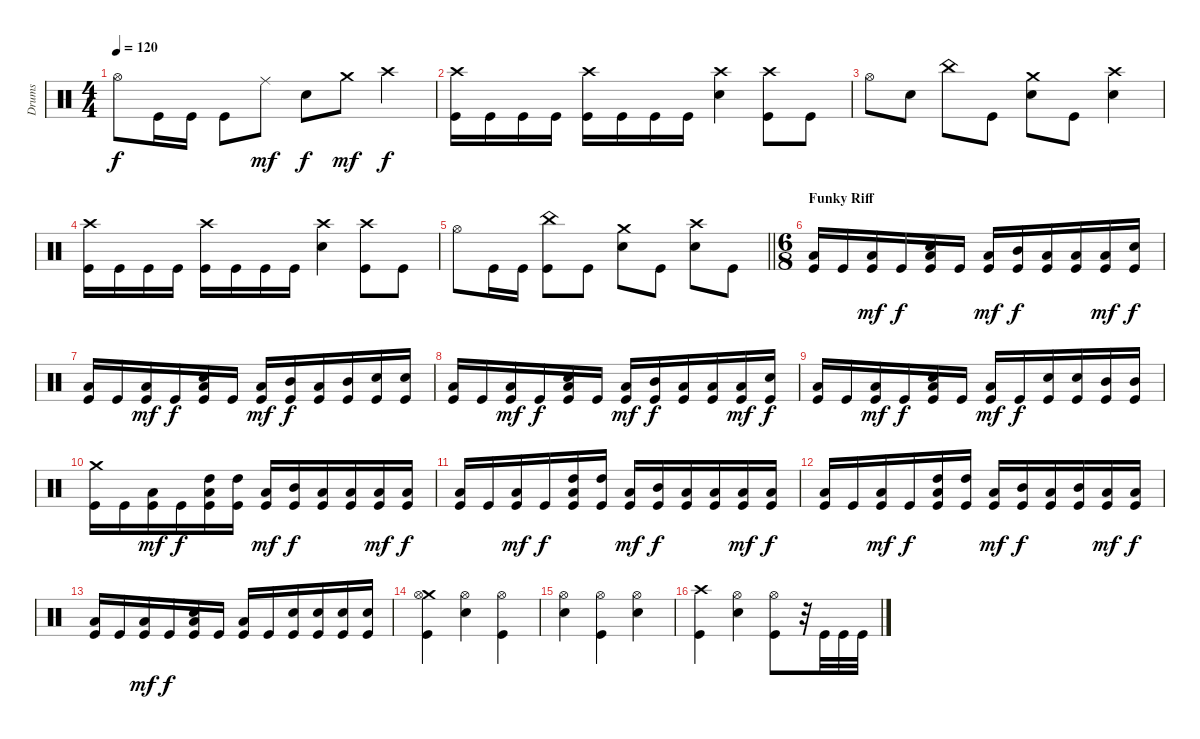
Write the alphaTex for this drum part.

\track ("Drums" "Drums") {instrument percussion}
\staff {score}
\articulation defaults
\ts (4 4)
\tempo 120
\clef neutral
\ks c "Hi-Hat (open)".8{dy f} "Kick (hit)".16 "Kick (hit)".16 "Kick (hit)".8 "Ride (middle)".8{dy mf} "Electric Snare (hit)".8{dy f} "Crash medium (hit)".8{dy mf} "Crash high (hit)".4{dy f}
|
("Crash high (hit)" "Kick (hit)").16 "Kick (hit)".16 "Kick (hit)".16 "Kick (hit)".16 ("Crash high (hit)" "Kick (hit)").16 "Kick (hit)".16 "Kick (hit)".16 "Kick (hit)".16 ("Crash high (hit)" "Electric Snare (hit)").4 ("Crash high (hit)" "Kick (hit)").8 "Kick (hit)".8 |
"Hi-Hat (open)".8 "Electric Snare (hit)".8 "China (hit)".8 "Kick (hit)".8 ("Crash medium (hit)" "Electric Snare (hit)").8 "Kick (hit)".8 ("Crash high (hit)" "Electric Snare (hit)").4 |
("Crash high (hit)" "Kick (hit)").16 "Kick (hit)".16 "Kick (hit)".16 "Kick (hit)".16 ("Crash high (hit)" "Kick (hit)").16 "Kick (hit)".16 "Kick (hit)".16 "Kick (hit)".16 ("Crash high (hit)" "Electric Snare (hit)").4 ("Crash high (hit)" "Kick (hit)").8 "Kick (hit)".8 |
\barLineRight lightlight "Hi-Hat (open)".8 "Kick (hit)".16 "Kick (hit)".16
("China (hit)" "Kick (hit)").8 "Kick (hit)".8 ("Crash medium (hit)" "Electric Snare (hit)").8 "Kick (hit)".8 ("Crash high (hit)" "Electric Snare (hit)").8 "Kick (hit)".8 |
\ts (6 8)
\section ("" "Funky Riff")
("Low Floor Tom (hit)" "Kick (hit)").16 "Kick (hit)".16 ("Low Floor Tom (hit)" "Kick (hit)").16{dy mf} "Kick (hit)".16{dy f} ("Low Floor Tom (hit)" "Electric Snare (hit)" "Kick (hit)").16 "Kick (hit)".16 ("Low Floor Tom (hit)" "Kick (hit)").16{dy mf} ("Mid Tom (hit)" "Kick (hit)").16{dy f} ("Low Floor Tom (hit)" "Kick (hit)").16 ("Low Tom (hit)" "Kick (hit)").16 ("Low Floor Tom (hit)" "Kick (hit)").16{dy mf} ("Electric Snare (hit)" "Kick (hit)").16{dy f} |
("Low Floor Tom (hit)" "Kick (hit)").16 "Kick (hit)".16 ("Low Floor Tom (hit)" "Kick (hit)").16{dy mf} "Kick (hit)".16{dy f} ("Low Floor Tom (hit)" "Electric Snare (hit)" "Kick (hit)").16 "Kick (hit)".16 ("Low Floor Tom (hit)" "Kick (hit)").16{dy mf} ("Mid Tom (hit)" "Kick (hit)").16{dy f} ("Low Floor Tom (hit)" "Kick (hit)").16 ("Mid Tom (hit)" "Kick (hit)").16 ("Electric Snare (hit)" "Kick (hit)").16 ("Electric Snare (hit)" "Kick (hit)").16 |
("Low Floor Tom (hit)" "Kick (hit)").16 "Kick (hit)".16 ("Low Floor Tom (hit)" "Kick (hit)").16{dy mf} "Kick (hit)".16{dy f} ("Low Floor Tom (hit)" "Electric Snare (hit)" "Kick (hit)").16 "Kick (hit)".16 ("Low Floor Tom (hit)" "Kick (hit)").16{dy mf} ("Mid Tom (hit)" "Kick (hit)").16{dy f} ("Low Floor Tom (hit)" "Kick (hit)").16 ("Low Tom (hit)" "Kick (hit)").16 ("Low Floor Tom (hit)" "Kick (hit)").16{dy mf} ("Electric Snare (hit)" "Kick (hit)").16{dy f} |
("Low Tom (hit)" "Kick (hit)").16 "Kick (hit)".16 ("Low Tom (hit)" "Kick (hit)").16{dy mf} "Kick (hit)".16{dy f} ("Low Tom (hit)" "Electric Snare (hit)" "Kick (hit)").16 "Kick (hit)".16 ("Low Tom (hit)" "Kick (hit)").16{dy mf} "Kick (hit)".16{dy f} ("Electric Snare (hit)" "Kick (hit)").16 ("Electric Snare (hit)" "Kick (hit)").16 ("Mid Tom (hit)" "Kick (hit)").16 ("Mid Tom (hit)" "Kick (hit)").16 |
("Crash medium (hit)" "Kick (hit)").16 "Kick (hit)".16 ("Low Floor Tom (hit)" "Kick (hit)").16{dy mf} "Kick (hit)".16{dy f} ("High Tom (hit)" "Low Floor Tom (hit)" "Kick (hit)").16 ("High Tom (hit)" "Kick (hit)").16 ("Low Floor Tom (hit)" "Kick (hit)").16{dy mf} ("Mid Tom (hit)" "Kick (hit)").16{dy f} ("Low Floor Tom (hit)" "Kick (hit)").16 ("Low Tom (hit)" "Kick (hit)").16 ("Low Floor Tom (hit)" "Kick (hit)").16{dy mf} ("Low Tom (hit)" "Kick (hit)").16{dy f} |
("Low Floor Tom (hit)" "Kick (hit)").16 "Kick (hit)".16 ("Low Floor Tom (hit)" "Kick (hit)").16{dy mf} "Kick (hit)".16{dy f} ("High Tom (hit)" "Low Floor Tom (hit)" "Kick (hit)").16 ("High Tom (hit)" "Kick (hit)").16 ("Low Floor Tom (hit)" "Kick (hit)").16{dy mf} ("Mid Tom (hit)" "Kick (hit)").16{dy f} ("Low Floor Tom (hit)" "Kick (hit)").16 ("Low Tom (hit)" "Kick (hit)").16 ("Low Floor Tom (hit)" "Kick (hit)").16{dy mf} ("Low Tom (hit)" "Kick (hit)").16{dy f} |
("Low Floor Tom (hit)" "Kick (hit)").16 "Kick (hit)".16 ("Low Floor Tom (hit)" "Kick (hit)").16{dy mf} "Kick (hit)".16{dy f} ("High Tom (hit)" "Low Floor Tom (hit)" "Kick (hit)").16 ("High Tom (hit)" "Kick (hit)").16 ("Low Floor Tom (hit)" "Kick (hit)").16{dy mf} ("Mid Tom (hit)" "Kick (hit)").16{dy f} ("Low Floor Tom (hit)" "Kick (hit)").16 ("Mid Tom (hit)" "Kick (hit)").16 ("Low Floor Tom (hit)" "Kick (hit)").16{dy mf} ("Low Tom (hit)" "Kick (hit)").16{dy f} |
("Low Floor Tom (hit)" "Kick (hit)").16 "Kick (hit)".16 ("Low Floor Tom (hit)" "Kick (hit)").16{dy mf} "Kick (hit)".16{dy f} ("Low Floor Tom (hit)" "Electric Snare (hit)" "Kick (hit)").16 "Kick (hit)".16 ("Low Floor Tom (hit)" "Kick (hit)").16 "Kick (hit)".16 ("Electric Snare (hit)" "Kick (hit)").16 ("Electric Snare (hit)" "Kick (hit)").16 ("Electric Snare (hit)" "Kick (hit)").16 ("Electric Snare (hit)" "Kick (hit)").16 |
("Crash medium (hit)" "Hi-Hat (open)" "Kick (hit)").4 ("Hi-Hat (open)" "Electric Snare (hit)").4 ("Hi-Hat (open)" "Kick (hit)").4 |
("Hi-Hat (open)" "Electric Snare (hit)").4 ("Hi-Hat (open)" "Kick (hit)").4 ("Hi-Hat (open)" "Electric Snare (hit)").4 |
("Crash high (hit)" "Kick (hit)").4 ("Hi-Hat (open)" "Electric Snare (hit)").4 ("Hi-Hat (open)" "Kick (hit)").8 r.32 "Kick (hit)".32 "Kick (hit)".32 "Kick (hit)".32
